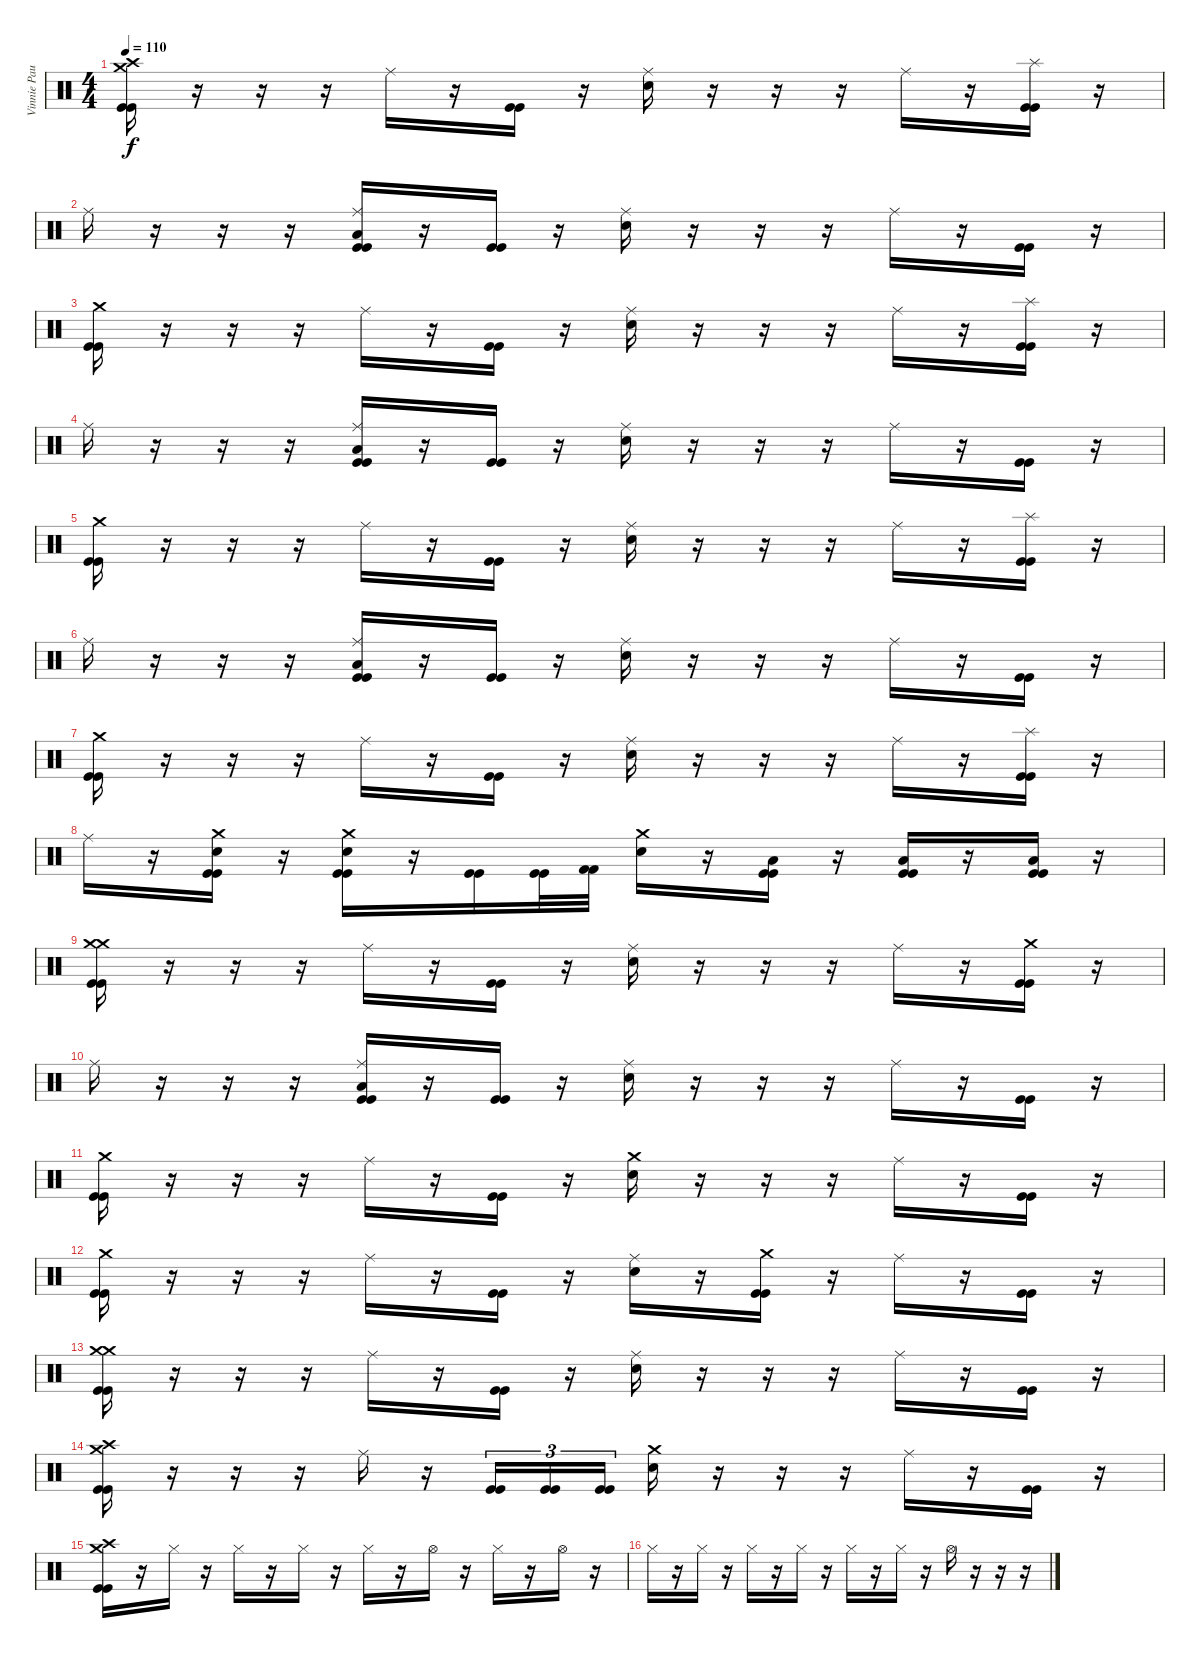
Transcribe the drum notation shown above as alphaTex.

\track ("Vinnie Paul " "Vinnie Pau") {instrument percussion}
\staff {score}
\articulation defaults
\ts (4 4)
\tempo 110
\clef neutral
\ks c
("Crash medium (hit)" "Crash high (hit)" "Kick (hit)" "Kick (hit)").16{dy f} r.16 r.16 r.16 "Ride (middle)".16 r.16 ("Kick (hit)" "Kick (hit)").16 r.16 ("Ride (middle)" "Snare (hit) 2").16 r.16 r.16 r.16 "Ride (middle)".16 r.16 ("Splash (hit)" "Kick (hit)" "Kick (hit)").16 r.16 |
"Ride (middle)".16 r.16 r.16 r.16 ("Ride (middle)" "Low Tom (hit)" "Kick (hit)" "Kick (hit)").16 r.16 ("Kick (hit)" "Kick (hit)").16 r.16 ("Ride (middle)" "Snare (hit) 2").16 r.16 r.16 r.16 "Ride (middle)".16 r.16 ("Kick (hit)" "Kick (hit)").16 r.16 |
("Crash medium (hit)" "Kick (hit)" "Kick (hit)").16 r.16 r.16 r.16 "Ride (middle)".16 r.16 ("Kick (hit)" "Kick (hit)").16 r.16 ("Ride (middle)" "Snare (hit) 2").16 r.16 r.16 r.16 "Ride (middle)".16 r.16 ("Splash (hit)" "Kick (hit)" "Kick (hit)").16 r.16 |
"Ride (middle)".16 r.16 r.16 r.16 ("Ride (middle)" "Low Tom (hit)" "Kick (hit)" "Kick (hit)").16 r.16 ("Kick (hit)" "Kick (hit)").16 r.16 ("Ride (middle)" "Snare (hit) 2").16 r.16 r.16 r.16 "Ride (middle)".16 r.16 ("Kick (hit)" "Kick (hit)").16 r.16 |
("Crash medium (hit)" "Kick (hit)" "Kick (hit)").16 r.16 r.16 r.16 "Ride (middle)".16 r.16 ("Kick (hit)" "Kick (hit)").16 r.16 ("Ride (middle)" "Snare (hit) 2").16 r.16 r.16 r.16 "Ride (middle)".16 r.16 ("Splash (hit)" "Kick (hit)" "Kick (hit)").16 r.16 |
"Ride (middle)".16 r.16 r.16 r.16 ("Ride (middle)" "Low Tom (hit)" "Kick (hit)" "Kick (hit)").16 r.16 ("Kick (hit)" "Kick (hit)").16 r.16 ("Ride (middle)" "Snare (hit) 2").16 r.16 r.16 r.16 "Ride (middle)".16 r.16 ("Kick (hit)" "Kick (hit)").16 r.16 |
("Crash medium (hit)" "Kick (hit)" "Kick (hit)").16 r.16 r.16 r.16 "Ride (middle)".16 r.16 ("Kick (hit)" "Kick (hit)").16 r.16 ("Ride (middle)" "Snare (hit) 2").16 r.16 r.16 r.16 "Ride (middle)".16 r.16 ("Splash (hit)" "Kick (hit)" "Kick (hit)").16 r.16 |
"Ride (middle)".16 r.16 ("Crash medium (hit)" "Snare (hit) 2" "Kick (hit)" "Kick (hit)").16 r.16 ("Crash medium (hit)" "Snare (hit) 2" "Kick (hit)" "Kick (hit)").16 r.16 ("Kick (hit)" "Kick (hit)").16 ("Kick (hit)" "Kick (hit)").32 ("Kick (hit) 2" "Kick (hit) 2").32 ("Crash medium (hit)" "Snare (hit) 2").16 r.16 ("Low Tom (hit)" "Kick (hit)" "Kick (hit)").16 r.16 ("Low Floor Tom (hit)" "Kick (hit)" "Kick (hit)").16 r.16 ("Low Floor Tom (hit)" "Kick (hit)" "Kick (hit)").16 r.16 |
("Crash medium (hit)" "Crash medium (hit)" "Kick (hit)" "Kick (hit)").16 r.16 r.16 r.16 "Ride (middle)".16 r.16 ("Kick (hit)" "Kick (hit)").16 r.16 ("Ride (middle)" "Snare (hit) 2").16 r.16 r.16 r.16 "Ride (middle)".16 r.16 ("Crash medium (hit)" "Kick (hit)" "Kick (hit)").16 r.16 |
"Ride (middle)".16 r.16 r.16 r.16 ("Ride (middle)" "Low Tom (hit)" "Kick (hit)" "Kick (hit)").16 r.16 ("Kick (hit)" "Kick (hit)").16 r.16 ("Ride (middle)" "Snare (hit) 2").16 r.16 r.16 r.16 "Ride (middle)".16 r.16 ("Kick (hit)" "Kick (hit)").16 r.16 |
("Crash medium (hit)" "Kick (hit)" "Kick (hit)").16 r.16 r.16 r.16 "Ride (middle)".16 r.16 ("Kick (hit)" "Kick (hit)").16 r.16 ("Crash medium (hit)" "Snare (hit) 2").16 r.16 r.16 r.16 "Ride (middle)".16 r.16 ("Kick (hit)" "Kick (hit)").16 r.16 |
("Crash medium (hit)" "Kick (hit)" "Kick (hit)").16 r.16 r.16 r.16 "Ride (middle)".16 r.16 ("Kick (hit)" "Kick (hit)").16 r.16 ("Ride (middle)" "Snare (hit) 2").16 r.16 ("Crash medium (hit)" "Kick (hit)" "Kick (hit)").16 r.16 "Ride (middle)".16 r.16 ("Kick (hit)" "Kick (hit)").16 r.16 |
("Crash medium (hit)" "Crash medium (hit)" "Kick (hit)" "Kick (hit)").16 r.16 r.16 r.16 "Ride (middle)".16 r.16 ("Kick (hit)" "Kick (hit)").16 r.16 ("Ride (middle)" "Snare (hit) 2").16 r.16 r.16 r.16 "Ride (middle)".16 r.16 ("Kick (hit)" "Kick (hit)").16 r.16 |
("Crash medium (hit)" "Crash high (hit)" "Kick (hit)" "Kick (hit)").16 r.16 r.16 r.16 "Ride (middle)".16 r.16 ("Kick (hit)" "Kick (hit)").16{tu (3 2)} ("Kick (hit)" "Kick (hit)").16{tu (3 2)} ("Kick (hit)" "Kick (hit)").16{tu (3 2)} ("Crash medium (hit)" "Snare (hit) 2").16 r.16 r.16 r.16 "Ride (middle)".16 r.16 ("Kick (hit)" "Kick (hit)").16 r.16 |
("Crash medium (hit)" "Crash high (hit)" "Kick (hit)" "Kick (hit)").16 r.16 "Hi-Hat (closed)".16 r.16 "Hi-Hat (closed)".16 r.16 "Hi-Hat (closed)".16 r.16 "Hi-Hat (closed)".16 r.16 "Hi-Hat (open)".16 r.16 "Hi-Hat (closed)".16 r.16 "Hi-Hat (open)".16 r.16 |
"Hi-Hat (closed)".16 r.16 "Hi-Hat (closed)".16 r.16 "Hi-Hat (closed)".16 r.16 "Hi-Hat (closed)".16 r.16 "Hi-Hat (closed)".16 r.16 "Hi-Hat (closed)".16 r.16 "Hi-Hat (open)".16 r.16 r.16 r.16
